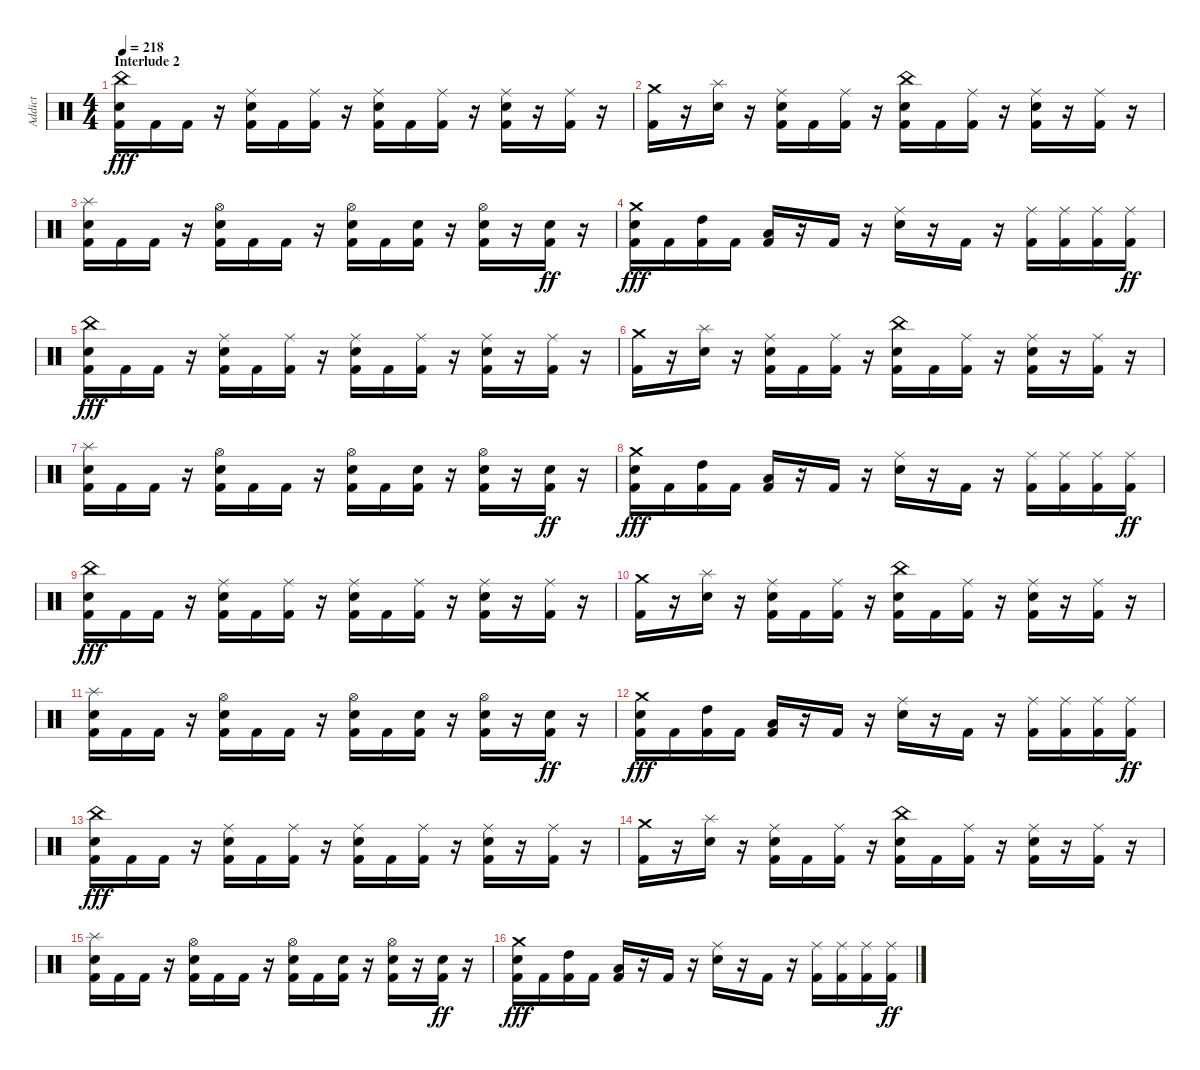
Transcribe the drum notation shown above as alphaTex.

\track ("Addict" "Addict") {instrument percussion}
\staff {score}
\articulation defaults
\ts (4 4)
\section ("" "Interlude 2")
\tempo 218
\clef neutral
\ks c
("Kick (hit) 2" "Snare (hit) 2" "China (hit)").16{dy fff} "Kick (hit) 2".16 "Kick (hit) 2".16 r.16 ("Kick (hit) 2" "Snare (hit) 2" "Ride (middle)").16 "Kick (hit) 2".16 ("Kick (hit) 2" "Ride (middle)").16 r.16 ("Kick (hit) 2" "Snare (hit) 2" "Ride (middle)").16 "Kick (hit) 2".16 ("Kick (hit) 2" "Ride (middle)").16 r.16 ("Kick (hit) 2" "Snare (hit) 2" "Ride (middle)").16 r.16 ("Kick (hit) 2" "Ride (middle)").16 r.16 |
("Kick (hit) 2" "Crash medium (hit)").16 r.16 ("Snare (hit) 2" "Splash (hit)").16 r.16 ("Kick (hit) 2" "Snare (hit) 2" "Ride (middle)").16 "Kick (hit) 2".16 ("Kick (hit) 2" "Ride (middle)").16 r.16 ("Kick (hit) 2" "Snare (hit) 2" "China (hit)").16 "Kick (hit) 2".16 ("Kick (hit) 2" "Ride (middle)").16 r.16 ("Kick (hit) 2" "Snare (hit) 2" "Ride (middle)").16 r.16 ("Kick (hit) 2" "Ride (middle)").16 r.16 |
("Kick (hit) 2" "Snare (hit) 2" "Splash (hit)").16 "Kick (hit) 2".16 "Kick (hit) 2".16 r.16 ("Kick (hit) 2" "Snare (hit) 2" "Hi-Hat (open)").16 "Kick (hit) 2".16 "Kick (hit) 2".16 r.16 ("Kick (hit) 2" "Snare (hit) 2" "Hi-Hat (open)").16 "Kick (hit) 2".16 ("Kick (hit) 2" "Snare (hit) 2").16 r.16 ("Kick (hit) 2" "Snare (hit) 2" "Hi-Hat (open)").16 r.16 ("Kick (hit) 2" "Snare (hit) 2").16{dy ff} r.16 |
("Kick (hit) 2" "Snare (hit) 2" "Crash medium (hit)").16{dy fff} "Kick (hit) 2".16 ("Kick (hit) 2" "High Tom (hit)").16 "Kick (hit) 2".16 ("Kick (hit) 2" "Low Tom (hit)").16 r.16 "Kick (hit) 2".16 r.16 ("Snare (hit) 2" "Ride (middle)").16 r.16 "Kick (hit) 2".16 r.16 ("Kick (hit) 2" "Ride (middle)").16 ("Kick (hit) 2" "Ride (middle)").16 ("Kick (hit) 2" "Ride (middle)").16 ("Kick (hit) 2" "Ride (middle)").16{dy ff} |
("Kick (hit) 2" "Snare (hit) 2" "China (hit)").16{dy fff} "Kick (hit) 2".16 "Kick (hit) 2".16 r.16 ("Kick (hit) 2" "Snare (hit) 2" "Ride (middle)").16 "Kick (hit) 2".16 ("Kick (hit) 2" "Ride (middle)").16 r.16 ("Kick (hit) 2" "Snare (hit) 2" "Ride (middle)").16 "Kick (hit) 2".16 ("Kick (hit) 2" "Ride (middle)").16 r.16 ("Kick (hit) 2" "Snare (hit) 2" "Ride (middle)").16 r.16 ("Kick (hit) 2" "Ride (middle)").16 r.16 |
("Kick (hit) 2" "Crash medium (hit)").16 r.16 ("Snare (hit) 2" "Splash (hit)").16 r.16 ("Kick (hit) 2" "Snare (hit) 2" "Ride (middle)").16 "Kick (hit) 2".16 ("Kick (hit) 2" "Ride (middle)").16 r.16 ("Kick (hit) 2" "Snare (hit) 2" "China (hit)").16 "Kick (hit) 2".16 ("Kick (hit) 2" "Ride (middle)").16 r.16 ("Kick (hit) 2" "Snare (hit) 2" "Ride (middle)").16 r.16 ("Kick (hit) 2" "Ride (middle)").16 r.16 |
("Kick (hit) 2" "Snare (hit) 2" "Splash (hit)").16 "Kick (hit) 2".16 "Kick (hit) 2".16 r.16 ("Kick (hit) 2" "Snare (hit) 2" "Hi-Hat (open)").16 "Kick (hit) 2".16 "Kick (hit) 2".16 r.16 ("Kick (hit) 2" "Snare (hit) 2" "Hi-Hat (open)").16 "Kick (hit) 2".16 ("Kick (hit) 2" "Snare (hit) 2").16 r.16 ("Kick (hit) 2" "Snare (hit) 2" "Hi-Hat (open)").16 r.16 ("Kick (hit) 2" "Snare (hit) 2").16{dy ff} r.16 |
("Kick (hit) 2" "Snare (hit) 2" "Crash medium (hit)").16{dy fff} "Kick (hit) 2".16 ("Kick (hit) 2" "High Tom (hit)").16 "Kick (hit) 2".16 ("Kick (hit) 2" "Low Tom (hit)").16 r.16 "Kick (hit) 2".16 r.16 ("Snare (hit) 2" "Ride (middle)").16 r.16 "Kick (hit) 2".16 r.16 ("Kick (hit) 2" "Ride (middle)").16 ("Kick (hit) 2" "Ride (middle)").16 ("Kick (hit) 2" "Ride (middle)").16 ("Kick (hit) 2" "Ride (middle)").16{dy ff} |
("Kick (hit) 2" "Snare (hit) 2" "China (hit)").16{dy fff} "Kick (hit) 2".16 "Kick (hit) 2".16 r.16 ("Kick (hit) 2" "Snare (hit) 2" "Ride (middle)").16 "Kick (hit) 2".16 ("Kick (hit) 2" "Ride (middle)").16 r.16 ("Kick (hit) 2" "Snare (hit) 2" "Ride (middle)").16 "Kick (hit) 2".16 ("Kick (hit) 2" "Ride (middle)").16 r.16 ("Kick (hit) 2" "Snare (hit) 2" "Ride (middle)").16 r.16 ("Kick (hit) 2" "Ride (middle)").16 r.16 |
("Kick (hit) 2" "Crash medium (hit)").16 r.16 ("Snare (hit) 2" "Splash (hit)").16 r.16 ("Kick (hit) 2" "Snare (hit) 2" "Ride (middle)").16 "Kick (hit) 2".16 ("Kick (hit) 2" "Ride (middle)").16 r.16 ("Kick (hit) 2" "Snare (hit) 2" "China (hit)").16 "Kick (hit) 2".16 ("Kick (hit) 2" "Ride (middle)").16 r.16 ("Kick (hit) 2" "Snare (hit) 2" "Ride (middle)").16 r.16 ("Kick (hit) 2" "Ride (middle)").16 r.16 |
("Kick (hit) 2" "Snare (hit) 2" "Splash (hit)").16 "Kick (hit) 2".16 "Kick (hit) 2".16 r.16 ("Kick (hit) 2" "Snare (hit) 2" "Hi-Hat (open)").16 "Kick (hit) 2".16 "Kick (hit) 2".16 r.16 ("Kick (hit) 2" "Snare (hit) 2" "Hi-Hat (open)").16 "Kick (hit) 2".16 ("Kick (hit) 2" "Snare (hit) 2").16 r.16 ("Kick (hit) 2" "Snare (hit) 2" "Hi-Hat (open)").16 r.16 ("Kick (hit) 2" "Snare (hit) 2").16{dy ff} r.16 |
("Kick (hit) 2" "Snare (hit) 2" "Crash medium (hit)").16{dy fff} "Kick (hit) 2".16 ("Kick (hit) 2" "High Tom (hit)").16 "Kick (hit) 2".16 ("Kick (hit) 2" "Low Tom (hit)").16 r.16 "Kick (hit) 2".16 r.16 ("Snare (hit) 2" "Ride (middle)").16 r.16 "Kick (hit) 2".16 r.16 ("Kick (hit) 2" "Ride (middle)").16 ("Kick (hit) 2" "Ride (middle)").16 ("Kick (hit) 2" "Ride (middle)").16 ("Kick (hit) 2" "Ride (middle)").16{dy ff} |
("Kick (hit) 2" "Snare (hit) 2" "China (hit)").16{dy fff} "Kick (hit) 2".16 "Kick (hit) 2".16 r.16 ("Kick (hit) 2" "Snare (hit) 2" "Ride (middle)").16 "Kick (hit) 2".16 ("Kick (hit) 2" "Ride (middle)").16 r.16 ("Kick (hit) 2" "Snare (hit) 2" "Ride (middle)").16 "Kick (hit) 2".16 ("Kick (hit) 2" "Ride (middle)").16 r.16 ("Kick (hit) 2" "Snare (hit) 2" "Ride (middle)").16 r.16 ("Kick (hit) 2" "Ride (middle)").16 r.16 |
("Kick (hit) 2" "Crash medium (hit)").16 r.16 ("Snare (hit) 2" "Splash (hit)").16 r.16 ("Kick (hit) 2" "Snare (hit) 2" "Ride (middle)").16 "Kick (hit) 2".16 ("Kick (hit) 2" "Ride (middle)").16 r.16 ("Kick (hit) 2" "Snare (hit) 2" "China (hit)").16 "Kick (hit) 2".16 ("Kick (hit) 2" "Ride (middle)").16 r.16 ("Kick (hit) 2" "Snare (hit) 2" "Ride (middle)").16 r.16 ("Kick (hit) 2" "Ride (middle)").16 r.16 |
("Kick (hit) 2" "Snare (hit) 2" "Splash (hit)").16 "Kick (hit) 2".16 "Kick (hit) 2".16 r.16 ("Kick (hit) 2" "Snare (hit) 2" "Hi-Hat (open)").16 "Kick (hit) 2".16 "Kick (hit) 2".16 r.16 ("Kick (hit) 2" "Snare (hit) 2" "Hi-Hat (open)").16 "Kick (hit) 2".16 ("Kick (hit) 2" "Snare (hit) 2").16 r.16 ("Kick (hit) 2" "Snare (hit) 2" "Hi-Hat (open)").16 r.16 ("Kick (hit) 2" "Snare (hit) 2").16{dy ff} r.16 |
("Kick (hit) 2" "Snare (hit) 2" "Crash medium (hit)").16{dy fff} "Kick (hit) 2".16 ("Kick (hit) 2" "High Tom (hit)").16 "Kick (hit) 2".16 ("Kick (hit) 2" "Low Tom (hit)").16 r.16 "Kick (hit) 2".16 r.16 ("Snare (hit) 2" "Ride (middle)").16 r.16 "Kick (hit) 2".16 r.16 ("Kick (hit) 2" "Ride (middle)").16 ("Kick (hit) 2" "Ride (middle)").16 ("Kick (hit) 2" "Ride (middle)").16 ("Kick (hit) 2" "Ride (middle)").16{dy ff}
